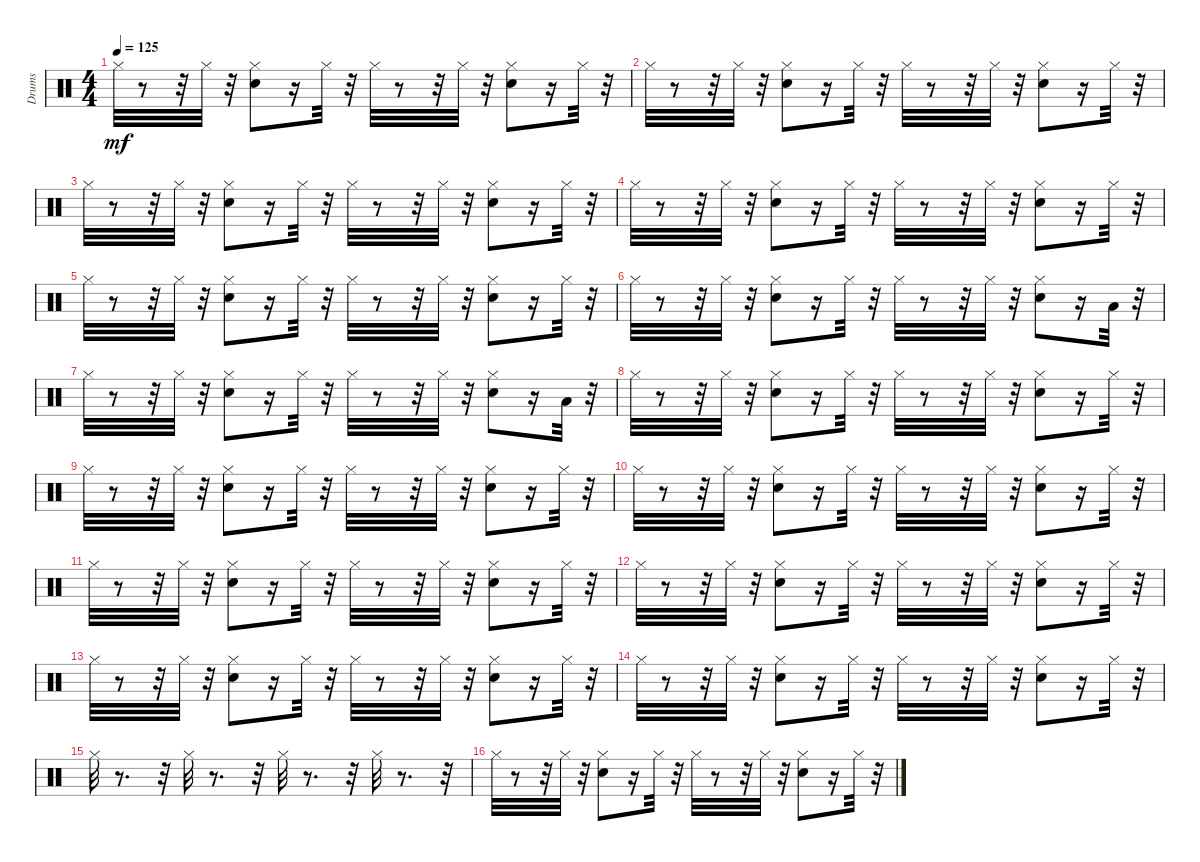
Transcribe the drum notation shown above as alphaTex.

\track ("Drums" "Drums") {instrument percussion}
\staff {score}
\articulation defaults
\ts (4 4)
\tempo 125
\clef neutral
\ks c "Hi-Hat (closed)".32{dy mf}
r.8 r.32 "Hi-Hat (closed)".32 r.32 ("Snare (hit) 2" "Hi-Hat (closed)").8 r.16 "Hi-Hat (closed)".32 r.32 "Hi-Hat (closed)".32 r.8 r.32 "Hi-Hat (closed)".32 r.32 ("Snare (hit) 2" "Hi-Hat (closed)").8 r.16 "Hi-Hat (closed)".32 r.32 |
"Hi-Hat (closed)".32 r.8 r.32 "Hi-Hat (closed)".32 r.32 ("Snare (hit) 2" "Hi-Hat (closed)").8 r.16 "Hi-Hat (closed)".32 r.32 "Hi-Hat (closed)".32 r.8 r.32 "Hi-Hat (closed)".32 r.32 ("Snare (hit) 2" "Hi-Hat (closed)").8 r.16 "Hi-Hat (closed)".32 r.32 |
"Hi-Hat (closed)".32 r.8 r.32 "Hi-Hat (closed)".32 r.32 ("Snare (hit) 2" "Hi-Hat (closed)").8 r.16 "Hi-Hat (closed)".32 r.32 "Hi-Hat (closed)".32 r.8 r.32 "Hi-Hat (closed)".32 r.32 ("Snare (hit) 2" "Hi-Hat (closed)").8 r.16 "Hi-Hat (closed)".32 r.32 |
"Hi-Hat (closed)".32 r.8 r.32 "Hi-Hat (closed)".32 r.32 ("Snare (hit) 2" "Hi-Hat (closed)").8 r.16 "Hi-Hat (closed)".32 r.32 "Hi-Hat (closed)".32 r.8 r.32 "Hi-Hat (closed)".32 r.32 ("Snare (hit) 2" "Hi-Hat (closed)").8 r.16 "Hi-Hat (closed)".32 r.32 |
"Hi-Hat (closed)".32 r.8 r.32 "Hi-Hat (closed)".32 r.32 ("Snare (hit) 2" "Hi-Hat (closed)").8 r.16 "Hi-Hat (closed)".32 r.32 "Hi-Hat (closed)".32 r.8 r.32 "Hi-Hat (closed)".32 r.32 ("Snare (hit) 2" "Hi-Hat (closed)").8 r.16 "Hi-Hat (closed)".32 r.32 |
"Hi-Hat (closed)".32 r.8 r.32 "Hi-Hat (closed)".32 r.32 ("Snare (hit) 2" "Hi-Hat (closed)").8 r.16 "Hi-Hat (closed)".32 r.32 "Hi-Hat (closed)".32 r.8 r.32 "Hi-Hat (closed)".32 r.32 ("Snare (hit) 2" "Hi-Hat (closed)").8 r.16 "Low Floor Tom (hit)".32 r.32 |
"Hi-Hat (closed)".32 r.8 r.32 "Hi-Hat (closed)".32 r.32 ("Snare (hit) 2" "Hi-Hat (closed)").8 r.16 "Hi-Hat (closed)".32 r.32 "Hi-Hat (closed)".32 r.8 r.32 "Hi-Hat (closed)".32 r.32 ("Snare (hit) 2" "Hi-Hat (closed)").8 r.16 "Low Floor Tom (hit)".32 r.32 |
"Hi-Hat (closed)".32 r.8 r.32 "Hi-Hat (closed)".32 r.32 ("Snare (hit) 2" "Hi-Hat (closed)").8 r.16 "Hi-Hat (closed)".32 r.32 "Hi-Hat (closed)".32 r.8 r.32 "Hi-Hat (closed)".32 r.32 ("Snare (hit) 2" "Hi-Hat (closed)").8 r.16 "Hi-Hat (closed)".32 r.32 |
"Hi-Hat (closed)".32 r.8 r.32 "Hi-Hat (closed)".32 r.32 ("Snare (hit) 2" "Hi-Hat (closed)").8 r.16 "Hi-Hat (closed)".32 r.32 "Hi-Hat (closed)".32 r.8 r.32 "Hi-Hat (closed)".32 r.32 ("Snare (hit) 2" "Hi-Hat (closed)").8 r.16 "Hi-Hat (closed)".32 r.32 |
"Hi-Hat (closed)".32 r.8 r.32 "Hi-Hat (closed)".32 r.32 ("Snare (hit) 2" "Hi-Hat (closed)").8 r.16 "Hi-Hat (closed)".32 r.32 "Hi-Hat (closed)".32 r.8 r.32 "Hi-Hat (closed)".32 r.32 ("Snare (hit) 2" "Hi-Hat (closed)").8 r.16 "Hi-Hat (closed)".32 r.32 |
"Hi-Hat (closed)".32 r.8 r.32 "Hi-Hat (closed)".32 r.32 ("Snare (hit) 2" "Hi-Hat (closed)").8 r.16 "Hi-Hat (closed)".32 r.32 "Hi-Hat (closed)".32 r.8 r.32 "Hi-Hat (closed)".32 r.32 ("Snare (hit) 2" "Hi-Hat (closed)").8 r.16 "Hi-Hat (closed)".32 r.32 |
"Hi-Hat (closed)".32 r.8 r.32 "Hi-Hat (closed)".32 r.32 ("Snare (hit) 2" "Hi-Hat (closed)").8 r.16 "Hi-Hat (closed)".32 r.32 "Hi-Hat (closed)".32 r.8 r.32 "Hi-Hat (closed)".32 r.32 ("Snare (hit) 2" "Hi-Hat (closed)").8 r.16 "Hi-Hat (closed)".32 r.32 |
"Hi-Hat (closed)".32 r.8 r.32 "Hi-Hat (closed)".32 r.32 ("Snare (hit) 2" "Hi-Hat (closed)").8 r.16 "Hi-Hat (closed)".32 r.32 "Hi-Hat (closed)".32 r.8 r.32 "Hi-Hat (closed)".32 r.32 ("Snare (hit) 2" "Hi-Hat (closed)").8 r.16 "Hi-Hat (closed)".32 r.32 |
"Hi-Hat (closed)".32 r.8 r.32 "Hi-Hat (closed)".32 r.32 ("Snare (hit) 2" "Hi-Hat (closed)").8 r.16 "Hi-Hat (closed)".32 r.32 "Hi-Hat (closed)".32 r.8 r.32 "Hi-Hat (closed)".32 r.32 ("Snare (hit) 2" "Hi-Hat (closed)").8 r.16 "Hi-Hat (closed)".32 r.32 |
"Hi-Hat (closed)".32 r.8{d} r.32 "Hi-Hat (closed)".32 r.8{d} r.32 "Hi-Hat (closed)".32 r.8{d} r.32 "Hi-Hat (closed)".32 r.8{d} r.32 |
"Hi-Hat (closed)".32 r.8 r.32 "Hi-Hat (closed)".32 r.32 ("Snare (hit) 2" "Hi-Hat (closed)").8 r.16 "Hi-Hat (closed)".32 r.32 "Hi-Hat (closed)".32 r.8 r.32 "Hi-Hat (closed)".32 r.32 ("Snare (hit) 2" "Hi-Hat (closed)").8 r.16 "Hi-Hat (closed)".32 r.32
